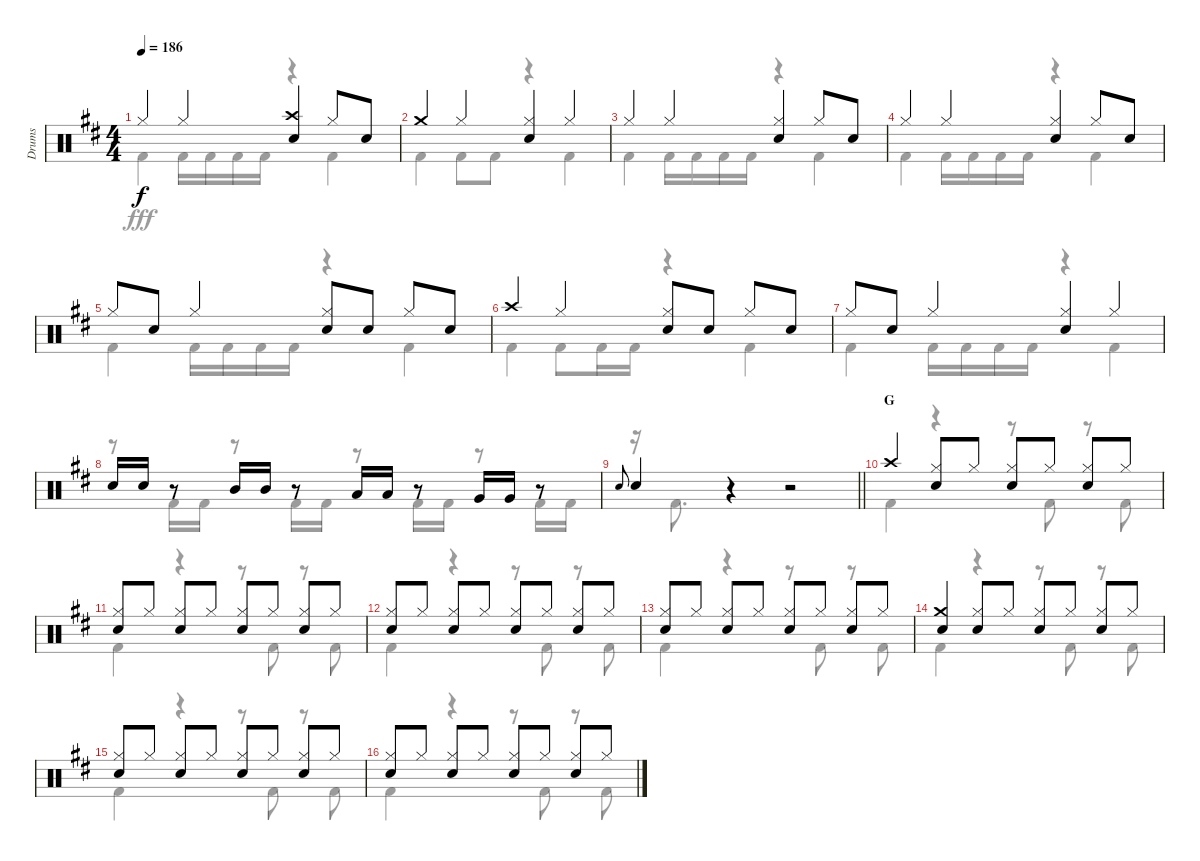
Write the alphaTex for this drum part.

\track ("Drums" "Drums") {instrument percussion}
\staff {score}
\articulation defaults
\voice
\ts (4 4)
\tempo 186
\clef neutral
\ks d "Hi-Hat (closed)".4{dy f} "Hi-Hat (closed)".4
("Crash high (hit)" "Snare (hit) 2").4 "Hi-Hat (closed)".8 "Snare (hit) 2".8 |
"Crash medium (hit)".4 "Hi-Hat (closed)".4 ("Hi-Hat (closed)" "Snare (hit) 2").4 "Hi-Hat (closed)".4 |
"Hi-Hat (closed)".4 "Hi-Hat (closed)".4 ("Hi-Hat (closed)" "Snare (hit) 2").4 "Hi-Hat (closed)".8 "Snare (hit) 2".8 |
"Hi-Hat (closed)".4 "Hi-Hat (closed)".4 ("Hi-Hat (closed)" "Snare (hit) 2").4 "Hi-Hat (closed)".8 "Snare (hit) 2".8 |
"Hi-Hat (closed)".8 "Snare (hit) 2".8 "Hi-Hat (closed)".4 ("Hi-Hat (closed)" "Snare (hit) 2").8 "Snare (hit) 2".8 "Hi-Hat (closed)".8 "Snare (hit) 2".8 |
"Crash high (hit)".4 "Hi-Hat (closed)".4 ("Hi-Hat (closed)" "Snare (hit) 2").8 "Snare (hit) 2".8 "Hi-Hat (closed)".8 "Snare (hit) 2".8 |
"Hi-Hat (closed)".8 "Snare (hit) 2".8 "Hi-Hat (closed)".4 ("Hi-Hat (closed)" "Snare (hit) 2").4 "Hi-Hat (closed)".4 |
"Snare (hit) 2".16 "Snare (hit) 2".16 r.8 "Mid Tom (hit)".16 "Mid Tom (hit)".16 r.8 "Low Tom (hit)".16 "Low Tom (hit)".16 r.8 "Very Low Tom (hit)".16 "Very Low Tom (hit)".16 r.8 |
\barLineRight lightlight "Snare (hit) 2".8{gr onbeat} "Snare (hit) 2".4
r.4 r.2 |
\section ("" "G")
"Crash high (hit)".4 ("Hi-Hat (closed)" "Snare (hit) 2").8 "Hi-Hat (closed)".8 ("Hi-Hat (closed)" "Snare (hit) 2").8 "Hi-Hat (closed)".8 ("Hi-Hat (closed)" "Snare (hit) 2").8 "Hi-Hat (closed)".8 |
("Hi-Hat (closed)" "Snare (hit) 2").8 "Hi-Hat (closed)".8 ("Hi-Hat (closed)" "Snare (hit) 2").8 "Hi-Hat (closed)".8 ("Hi-Hat (closed)" "Snare (hit) 2").8 "Hi-Hat (closed)".8 ("Hi-Hat (closed)" "Snare (hit) 2").8 "Hi-Hat (closed)".8 |
("Hi-Hat (closed)" "Snare (hit) 2").8 "Hi-Hat (closed)".8 ("Hi-Hat (closed)" "Snare (hit) 2").8 "Hi-Hat (closed)".8 ("Hi-Hat (closed)" "Snare (hit) 2").8 "Hi-Hat (closed)".8 ("Hi-Hat (closed)" "Snare (hit) 2").8 "Hi-Hat (closed)".8 |
("Hi-Hat (closed)" "Snare (hit) 2").8 "Hi-Hat (closed)".8 ("Hi-Hat (closed)" "Snare (hit) 2").8 "Hi-Hat (closed)".8 ("Hi-Hat (closed)" "Snare (hit) 2").8 "Hi-Hat (closed)".8 ("Hi-Hat (closed)" "Snare (hit) 2").8 "Hi-Hat (closed)".8 |
("Crash medium (hit)" "Snare (hit) 2").4 ("Hi-Hat (closed)" "Snare (hit) 2").8 "Hi-Hat (closed)".8 ("Hi-Hat (closed)" "Snare (hit) 2").8 "Hi-Hat (closed)".8 ("Hi-Hat (closed)" "Snare (hit) 2").8 "Hi-Hat (closed)".8 |
("Hi-Hat (closed)" "Snare (hit) 2").8 "Hi-Hat (closed)".8 ("Hi-Hat (closed)" "Snare (hit) 2").8 "Hi-Hat (closed)".8 ("Hi-Hat (closed)" "Snare (hit) 2").8 "Hi-Hat (closed)".8 ("Hi-Hat (closed)" "Snare (hit) 2").8 "Hi-Hat (closed)".8 |
("Hi-Hat (closed)" "Snare (hit) 2").8 "Hi-Hat (closed)".8 ("Hi-Hat (closed)" "Snare (hit) 2").8 "Hi-Hat (closed)".8 ("Hi-Hat (closed)" "Snare (hit) 2").8 "Hi-Hat (closed)".8 ("Hi-Hat (closed)" "Snare (hit) 2").8 "Hi-Hat (closed)".8
\voice
\clef neutral
\ottava regular
\simile none
\ks d "Kick (hit) 2".4{dy fff} "Kick (hit) 2".16 "Kick (hit) 2".16 "Kick (hit) 2".16 "Kick (hit) 2".16
r.4 "Kick (hit) 2".4 |
"Kick (hit) 2".4 "Kick (hit) 2".8 "Kick (hit) 2".8 r.4 "Kick (hit) 2".4 |
"Kick (hit) 2".4 "Kick (hit) 2".16 "Kick (hit) 2".16 "Kick (hit) 2".16 "Kick (hit) 2".16 r.4 "Kick (hit) 2".4 |
"Kick (hit) 2".4 "Kick (hit) 2".16 "Kick (hit) 2".16 "Kick (hit) 2".16 "Kick (hit) 2".16 r.4 "Kick (hit) 2".4 |
"Kick (hit) 2".4 "Kick (hit) 2".16 "Kick (hit) 2".16 "Kick (hit) 2".16 "Kick (hit) 2".16 r.4 "Kick (hit) 2".4 |
"Kick (hit) 2".4 "Kick (hit) 2".8 "Kick (hit) 2".16 "Kick (hit) 2".16 r.4 "Kick (hit) 2".4 |
"Kick (hit) 2".4 "Kick (hit) 2".16 "Kick (hit) 2".16 "Kick (hit) 2".16 "Kick (hit) 2".16 r.4 "Kick (hit) 2".4 |
r.8 "Kick (hit) 2".16 "Kick (hit) 2".16 r.8 "Kick (hit) 2".16 "Kick (hit) 2".16 r.8 "Kick (hit) 2".16 "Kick (hit) 2".16 r.8 "Kick (hit) 2".16 "Kick (hit) 2".16 |
\barLineRight lightlight
r.16 "Kick (hit) 2".8{d} r.4 r.2 |
"Kick (hit) 2".4 r.4 r.8 "Kick (hit) 2".8 r.8 "Kick (hit) 2".8 |
"Kick (hit) 2".4 r.4 r.8 "Kick (hit) 2".8 r.8 "Kick (hit) 2".8 |
"Kick (hit) 2".4 r.4 r.8 "Kick (hit) 2".8 r.8 "Kick (hit) 2".8 |
"Kick (hit) 2".4 r.4 r.8 "Kick (hit) 2".8 r.8 "Kick (hit) 2".8 |
"Kick (hit) 2".4 r.4 r.8 "Kick (hit) 2".8 r.8 "Kick (hit) 2".8 |
"Kick (hit) 2".4 r.4 r.8 "Kick (hit) 2".8 r.8 "Kick (hit) 2".8 |
"Kick (hit) 2".4 r.4 r.8 "Kick (hit) 2".8 r.8 "Kick (hit) 2".8
